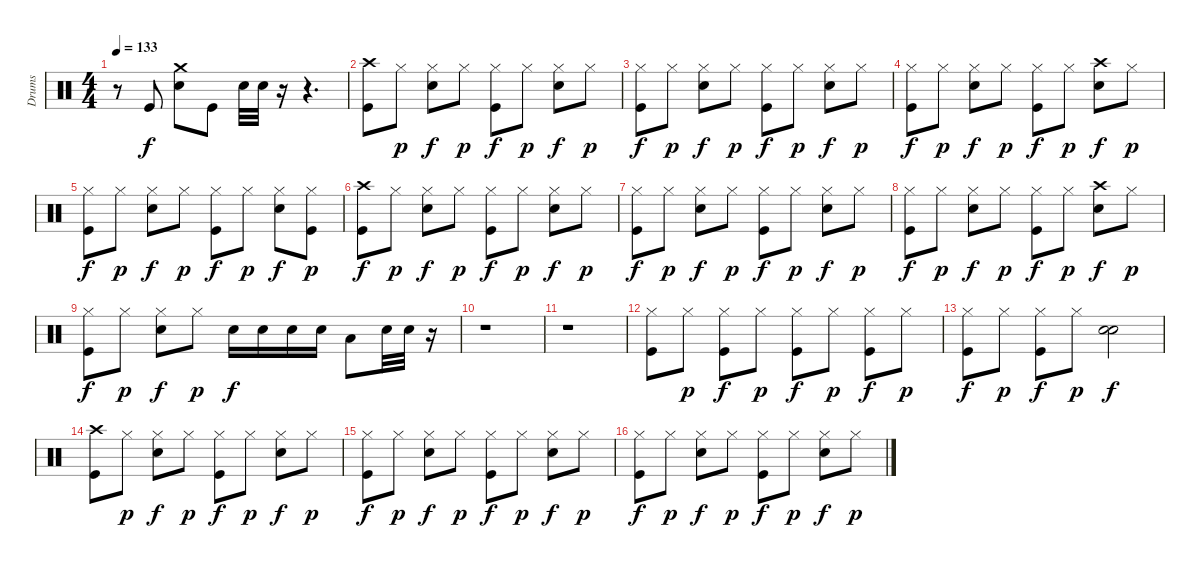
\track ("Drums" "Drums") {instrument percussion}
\staff {score}
\articulation defaults
\ts (4 4)
\tempo 133
\clef neutral
\ks c
r.8{dy f} "Kick (hit)".8 ("Crash medium (hit)" "Snare (hit) 2").8 "Kick (hit)".8 "Snare (hit) 2".32 "Snare (hit) 2".32 r.16 r.4{d} |
("Crash high (hit)" "Kick (hit)").8 "Hi-Hat (closed)".8{dy p} ("Hi-Hat (closed)" "Snare (hit) 2").8{dy f} "Hi-Hat (closed)".8{dy p} ("Hi-Hat (closed)" "Kick (hit)").8{dy f} "Hi-Hat (closed)".8{dy p} ("Hi-Hat (closed)" "Snare (hit) 2").8{dy f} "Hi-Hat (closed)".8{dy p} |
("Hi-Hat (closed)" "Kick (hit)").8{dy f} "Hi-Hat (closed)".8{dy p} ("Hi-Hat (closed)" "Snare (hit) 2").8{dy f} "Hi-Hat (closed)".8{dy p} ("Hi-Hat (closed)" "Kick (hit)").8{dy f} "Hi-Hat (closed)".8{dy p} ("Hi-Hat (closed)" "Snare (hit) 2").8{dy f} "Hi-Hat (closed)".8{dy p} |
("Hi-Hat (closed)" "Kick (hit)").8{dy f} "Hi-Hat (closed)".8{dy p} ("Hi-Hat (closed)" "Snare (hit) 2").8{dy f} "Hi-Hat (closed)".8{dy p} ("Hi-Hat (closed)" "Kick (hit)").8{dy f} "Hi-Hat (closed)".8{dy p} ("Crash high (hit)" "Snare (hit) 2").8{dy f} "Hi-Hat (closed)".8{dy p} |
("Hi-Hat (closed)" "Kick (hit)").8{dy f} "Hi-Hat (closed)".8{dy p} ("Hi-Hat (closed)" "Snare (hit) 2").8{dy f} "Hi-Hat (closed)".8{dy p} ("Hi-Hat (closed)" "Kick (hit)").8{dy f} "Hi-Hat (closed)".8{dy p} ("Hi-Hat (closed)" "Snare (hit) 2").8{dy f} ("Hi-Hat (closed)" "Kick (hit)").8{dy p} |
("Crash high (hit)" "Kick (hit)").8{dy f} "Hi-Hat (closed)".8{dy p} ("Hi-Hat (closed)" "Snare (hit) 2").8{dy f} "Hi-Hat (closed)".8{dy p} ("Hi-Hat (closed)" "Kick (hit)").8{dy f} "Hi-Hat (closed)".8{dy p} ("Hi-Hat (closed)" "Snare (hit) 2").8{dy f} "Hi-Hat (closed)".8{dy p} |
("Hi-Hat (closed)" "Kick (hit)").8{dy f} "Hi-Hat (closed)".8{dy p} ("Hi-Hat (closed)" "Snare (hit) 2").8{dy f} "Hi-Hat (closed)".8{dy p} ("Hi-Hat (closed)" "Kick (hit)").8{dy f} "Hi-Hat (closed)".8{dy p} ("Hi-Hat (closed)" "Snare (hit) 2").8{dy f} "Hi-Hat (closed)".8{dy p} |
("Hi-Hat (closed)" "Kick (hit)").8{dy f} "Hi-Hat (closed)".8{dy p} ("Hi-Hat (closed)" "Snare (hit) 2").8{dy f} "Hi-Hat (closed)".8{dy p} ("Hi-Hat (closed)" "Kick (hit)").8{dy f} "Hi-Hat (closed)".8{dy p} ("Crash high (hit)" "Snare (hit) 2").8{dy f} "Hi-Hat (closed)".8{dy p} |
("Hi-Hat (closed)" "Kick (hit)").8{dy f} "Hi-Hat (closed)".8{dy p} ("Hi-Hat (closed)" "Snare (hit) 2").8{dy f} "Hi-Hat (closed)".8{dy p} "Snare (hit) 2".16{dy f} "Snare (hit) 2".16 "Snare (hit) 2".16 "Snare (hit) 2".16 "Low Tom (hit)".8 "Snare (hit) 2".32 "Snare (hit) 2".32 r.16 |
r.1 |
r.1 |
("Hi-Hat (closed)" "Kick (hit)").8 "Hi-Hat (closed)".8{dy p} ("Hi-Hat (closed)" "Kick (hit)").8{dy f} "Hi-Hat (closed)".8{dy p} ("Hi-Hat (closed)" "Kick (hit)").8{dy f} "Hi-Hat (closed)".8{dy p} ("Hi-Hat (closed)" "Kick (hit)").8{dy f} "Hi-Hat (closed)".8{dy p} |
("Hi-Hat (closed)" "Kick (hit)").8{dy f} "Hi-Hat (closed)".8{dy p} ("Hi-Hat (closed)" "Kick (hit)").8{dy f} "Hi-Hat (closed)".8{dy p} ("Snare (hit) 2" "Electric Snare (hit)").2{dy f} |
("Crash high (hit)" "Kick (hit)").8 "Hi-Hat (closed)".8{dy p} ("Hi-Hat (closed)" "Snare (hit) 2").8{dy f} "Hi-Hat (closed)".8{dy p} ("Hi-Hat (closed)" "Kick (hit)").8{dy f} "Hi-Hat (closed)".8{dy p} ("Hi-Hat (closed)" "Snare (hit) 2").8{dy f} "Hi-Hat (closed)".8{dy p} |
("Hi-Hat (closed)" "Kick (hit)").8{dy f} "Hi-Hat (closed)".8{dy p} ("Hi-Hat (closed)" "Snare (hit) 2").8{dy f} "Hi-Hat (closed)".8{dy p} ("Hi-Hat (closed)" "Kick (hit)").8{dy f} "Hi-Hat (closed)".8{dy p} ("Hi-Hat (closed)" "Snare (hit) 2").8{dy f} "Hi-Hat (closed)".8{dy p} |
("Hi-Hat (closed)" "Kick (hit)").8{dy f} "Hi-Hat (closed)".8{dy p} ("Hi-Hat (closed)" "Snare (hit) 2").8{dy f} "Hi-Hat (closed)".8{dy p} ("Hi-Hat (closed)" "Kick (hit)").8{dy f} "Hi-Hat (closed)".8{dy p} ("Hi-Hat (closed)" "Snare (hit) 2").8{dy f} "Hi-Hat (closed)".8{dy p}
